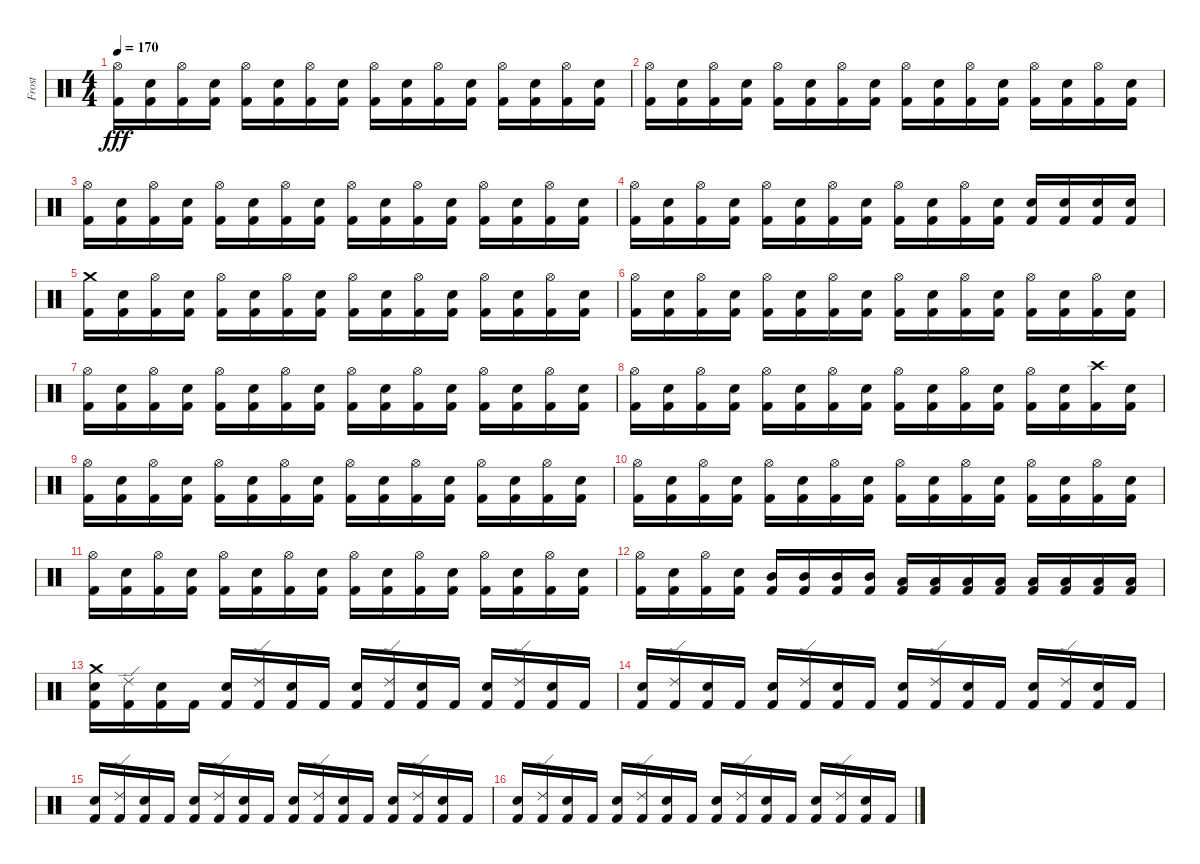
\track ("Frost" "Frost") {instrument percussion}
\staff {score}
\articulation defaults
\ts (4 4)
\tempo 170
\clef neutral
\ks c
("Hi-Hat (open)" "Kick (hit) 2").16{dy fff} ("Electric Snare (hit)" "Kick (hit) 2").16 ("Hi-Hat (open)" "Kick (hit) 2").16 ("Electric Snare (hit)" "Kick (hit) 2").16 ("Hi-Hat (open)" "Kick (hit) 2").16 ("Electric Snare (hit)" "Kick (hit) 2").16 ("Hi-Hat (open)" "Kick (hit) 2").16 ("Electric Snare (hit)" "Kick (hit) 2").16 ("Hi-Hat (open)" "Kick (hit) 2").16 ("Electric Snare (hit)" "Kick (hit) 2").16 ("Hi-Hat (open)" "Kick (hit) 2").16 ("Electric Snare (hit)" "Kick (hit) 2").16 ("Hi-Hat (open)" "Kick (hit) 2").16 ("Electric Snare (hit)" "Kick (hit) 2").16 ("Hi-Hat (open)" "Kick (hit) 2").16 ("Electric Snare (hit)" "Kick (hit) 2").16 |
("Hi-Hat (open)" "Kick (hit) 2").16 ("Electric Snare (hit)" "Kick (hit) 2").16 ("Hi-Hat (open)" "Kick (hit) 2").16 ("Electric Snare (hit)" "Kick (hit) 2").16 ("Hi-Hat (open)" "Kick (hit) 2").16 ("Electric Snare (hit)" "Kick (hit) 2").16 ("Hi-Hat (open)" "Kick (hit) 2").16 ("Electric Snare (hit)" "Kick (hit) 2").16 ("Hi-Hat (open)" "Kick (hit) 2").16 ("Electric Snare (hit)" "Kick (hit) 2").16 ("Hi-Hat (open)" "Kick (hit) 2").16 ("Electric Snare (hit)" "Kick (hit) 2").16 ("Hi-Hat (open)" "Kick (hit) 2").16 ("Electric Snare (hit)" "Kick (hit) 2").16 ("Hi-Hat (open)" "Kick (hit) 2").16 ("Electric Snare (hit)" "Kick (hit) 2").16 |
("Hi-Hat (open)" "Kick (hit) 2").16 ("Electric Snare (hit)" "Kick (hit) 2").16 ("Hi-Hat (open)" "Kick (hit) 2").16 ("Electric Snare (hit)" "Kick (hit) 2").16 ("Hi-Hat (open)" "Kick (hit) 2").16 ("Electric Snare (hit)" "Kick (hit) 2").16 ("Hi-Hat (open)" "Kick (hit) 2").16 ("Electric Snare (hit)" "Kick (hit) 2").16 ("Hi-Hat (open)" "Kick (hit) 2").16 ("Electric Snare (hit)" "Kick (hit) 2").16 ("Hi-Hat (open)" "Kick (hit) 2").16 ("Electric Snare (hit)" "Kick (hit) 2").16 ("Hi-Hat (open)" "Kick (hit) 2").16 ("Electric Snare (hit)" "Kick (hit) 2").16 ("Hi-Hat (open)" "Kick (hit) 2").16 ("Electric Snare (hit)" "Kick (hit) 2").16 |
("Hi-Hat (open)" "Kick (hit) 2").16 ("Electric Snare (hit)" "Kick (hit) 2").16 ("Hi-Hat (open)" "Kick (hit) 2").16 ("Electric Snare (hit)" "Kick (hit) 2").16 ("Hi-Hat (open)" "Kick (hit) 2").16 ("Electric Snare (hit)" "Kick (hit) 2").16 ("Hi-Hat (open)" "Kick (hit) 2").16 ("Electric Snare (hit)" "Kick (hit) 2").16 ("Hi-Hat (open)" "Kick (hit) 2").16 ("Electric Snare (hit)" "Kick (hit) 2").16 ("Hi-Hat (open)" "Kick (hit) 2").16 ("Electric Snare (hit)" "Kick (hit) 2").16 ("Electric Snare (hit)" "Kick (hit) 2").16 ("Electric Snare (hit)" "Kick (hit) 2").16 ("Electric Snare (hit)" "Kick (hit) 2").16 ("Electric Snare (hit)" "Kick (hit) 2").16 |
("Crash medium (hit)" "Kick (hit) 2").16 ("Electric Snare (hit)" "Kick (hit) 2").16 ("Hi-Hat (open)" "Kick (hit) 2").16 ("Electric Snare (hit)" "Kick (hit) 2").16 ("Hi-Hat (open)" "Kick (hit) 2").16 ("Electric Snare (hit)" "Kick (hit) 2").16 ("Hi-Hat (open)" "Kick (hit) 2").16 ("Electric Snare (hit)" "Kick (hit) 2").16 ("Hi-Hat (open)" "Kick (hit) 2").16 ("Electric Snare (hit)" "Kick (hit) 2").16 ("Hi-Hat (open)" "Kick (hit) 2").16 ("Electric Snare (hit)" "Kick (hit) 2").16 ("Hi-Hat (open)" "Kick (hit) 2").16 ("Electric Snare (hit)" "Kick (hit) 2").16 ("Hi-Hat (open)" "Kick (hit) 2").16 ("Electric Snare (hit)" "Kick (hit) 2").16 |
("Hi-Hat (open)" "Kick (hit) 2").16 ("Electric Snare (hit)" "Kick (hit) 2").16 ("Hi-Hat (open)" "Kick (hit) 2").16 ("Electric Snare (hit)" "Kick (hit) 2").16 ("Hi-Hat (open)" "Kick (hit) 2").16 ("Electric Snare (hit)" "Kick (hit) 2").16 ("Hi-Hat (open)" "Kick (hit) 2").16 ("Electric Snare (hit)" "Kick (hit) 2").16 ("Hi-Hat (open)" "Kick (hit) 2").16 ("Electric Snare (hit)" "Kick (hit) 2").16 ("Hi-Hat (open)" "Kick (hit) 2").16 ("Electric Snare (hit)" "Kick (hit) 2").16 ("Hi-Hat (open)" "Kick (hit) 2").16 ("Electric Snare (hit)" "Kick (hit) 2").16 ("Hi-Hat (open)" "Kick (hit) 2").16 ("Electric Snare (hit)" "Kick (hit) 2").16 |
("Hi-Hat (open)" "Kick (hit) 2").16 ("Electric Snare (hit)" "Kick (hit) 2").16 ("Hi-Hat (open)" "Kick (hit) 2").16 ("Electric Snare (hit)" "Kick (hit) 2").16 ("Hi-Hat (open)" "Kick (hit) 2").16 ("Electric Snare (hit)" "Kick (hit) 2").16 ("Hi-Hat (open)" "Kick (hit) 2").16 ("Electric Snare (hit)" "Kick (hit) 2").16 ("Hi-Hat (open)" "Kick (hit) 2").16 ("Electric Snare (hit)" "Kick (hit) 2").16 ("Hi-Hat (open)" "Kick (hit) 2").16 ("Electric Snare (hit)" "Kick (hit) 2").16 ("Hi-Hat (open)" "Kick (hit) 2").16 ("Electric Snare (hit)" "Kick (hit) 2").16 ("Hi-Hat (open)" "Kick (hit) 2").16 ("Electric Snare (hit)" "Kick (hit) 2").16 |
("Hi-Hat (open)" "Kick (hit) 2").16 ("Electric Snare (hit)" "Kick (hit) 2").16 ("Hi-Hat (open)" "Kick (hit) 2").16 ("Electric Snare (hit)" "Kick (hit) 2").16 ("Hi-Hat (open)" "Kick (hit) 2").16 ("Electric Snare (hit)" "Kick (hit) 2").16 ("Hi-Hat (open)" "Kick (hit) 2").16 ("Electric Snare (hit)" "Kick (hit) 2").16 ("Hi-Hat (open)" "Kick (hit) 2").16 ("Electric Snare (hit)" "Kick (hit) 2").16 ("Hi-Hat (open)" "Kick (hit) 2").16 ("Electric Snare (hit)" "Kick (hit) 2").16 ("Hi-Hat (open)" "Kick (hit) 2").16 ("Electric Snare (hit)" "Kick (hit) 2").16 ("Crash high (hit)" "Kick (hit) 2").16 ("Electric Snare (hit)" "Kick (hit) 2").16 |
("Hi-Hat (open)" "Kick (hit) 2").16 ("Electric Snare (hit)" "Kick (hit) 2").16 ("Hi-Hat (open)" "Kick (hit) 2").16 ("Electric Snare (hit)" "Kick (hit) 2").16 ("Hi-Hat (open)" "Kick (hit) 2").16 ("Electric Snare (hit)" "Kick (hit) 2").16 ("Hi-Hat (open)" "Kick (hit) 2").16 ("Electric Snare (hit)" "Kick (hit) 2").16 ("Hi-Hat (open)" "Kick (hit) 2").16 ("Electric Snare (hit)" "Kick (hit) 2").16 ("Hi-Hat (open)" "Kick (hit) 2").16 ("Electric Snare (hit)" "Kick (hit) 2").16 ("Hi-Hat (open)" "Kick (hit) 2").16 ("Electric Snare (hit)" "Kick (hit) 2").16 ("Hi-Hat (open)" "Kick (hit) 2").16 ("Electric Snare (hit)" "Kick (hit) 2").16 |
("Hi-Hat (open)" "Kick (hit) 2").16 ("Electric Snare (hit)" "Kick (hit) 2").16 ("Hi-Hat (open)" "Kick (hit) 2").16 ("Electric Snare (hit)" "Kick (hit) 2").16 ("Hi-Hat (open)" "Kick (hit) 2").16 ("Electric Snare (hit)" "Kick (hit) 2").16 ("Hi-Hat (open)" "Kick (hit) 2").16 ("Electric Snare (hit)" "Kick (hit) 2").16 ("Hi-Hat (open)" "Kick (hit) 2").16 ("Electric Snare (hit)" "Kick (hit) 2").16 ("Hi-Hat (open)" "Kick (hit) 2").16 ("Electric Snare (hit)" "Kick (hit) 2").16 ("Hi-Hat (open)" "Kick (hit) 2").16 ("Electric Snare (hit)" "Kick (hit) 2").16 ("Hi-Hat (open)" "Kick (hit) 2").16 ("Electric Snare (hit)" "Kick (hit) 2").16 |
("Hi-Hat (open)" "Kick (hit) 2").16 ("Electric Snare (hit)" "Kick (hit) 2").16 ("Hi-Hat (open)" "Kick (hit) 2").16 ("Electric Snare (hit)" "Kick (hit) 2").16 ("Hi-Hat (open)" "Kick (hit) 2").16 ("Electric Snare (hit)" "Kick (hit) 2").16 ("Hi-Hat (open)" "Kick (hit) 2").16 ("Electric Snare (hit)" "Kick (hit) 2").16 ("Hi-Hat (open)" "Kick (hit) 2").16 ("Electric Snare (hit)" "Kick (hit) 2").16 ("Hi-Hat (open)" "Kick (hit) 2").16 ("Electric Snare (hit)" "Kick (hit) 2").16 ("Hi-Hat (open)" "Kick (hit) 2").16 ("Electric Snare (hit)" "Kick (hit) 2").16 ("Hi-Hat (open)" "Kick (hit) 2").16 ("Electric Snare (hit)" "Kick (hit) 2").16 |
("Hi-Hat (open)" "Kick (hit) 2").16 ("Electric Snare (hit)" "Kick (hit) 2").16 ("Hi-Hat (open)" "Kick (hit) 2").16 ("Electric Snare (hit)" "Kick (hit) 2").16 ("Mid Tom (hit)" "Kick (hit) 2").16 ("Mid Tom (hit)" "Kick (hit) 2").16 ("Mid Tom (hit)" "Kick (hit) 2").16 ("Mid Tom (hit)" "Kick (hit) 2").16 ("Low Tom (hit)" "Kick (hit) 2").16 ("Low Tom (hit)" "Kick (hit) 2").16 ("Low Tom (hit)" "Kick (hit) 2").16 ("Low Tom (hit)" "Kick (hit) 2").16 ("Low Floor Tom (hit)" "Kick (hit) 2").16 ("Low Floor Tom (hit)" "Kick (hit) 2").16 ("Low Floor Tom (hit)" "Kick (hit) 2").16 ("Low Floor Tom (hit)" "Kick (hit) 2").16 |
("Crash medium (hit)" "Electric Snare (hit)" "Kick (hit) 2").16 ("Ride (edge) 2" "Kick (hit) 2").16 ("Electric Snare (hit)" "Kick (hit) 2").16 "Kick (hit) 2".16 ("Electric Snare (hit)" "Kick (hit) 2").16 ("Ride (edge) 2" "Kick (hit) 2").16 ("Electric Snare (hit)" "Kick (hit) 2").16 "Kick (hit) 2".16 ("Electric Snare (hit)" "Kick (hit) 2").16 ("Ride (edge) 2" "Kick (hit) 2").16 ("Electric Snare (hit)" "Kick (hit) 2").16 "Kick (hit) 2".16 ("Electric Snare (hit)" "Kick (hit) 2").16 ("Ride (edge) 2" "Kick (hit) 2").16 ("Electric Snare (hit)" "Kick (hit) 2").16 "Kick (hit) 2".16 |
("Electric Snare (hit)" "Kick (hit) 2").16 ("Ride (edge) 2" "Kick (hit) 2").16 ("Electric Snare (hit)" "Kick (hit) 2").16 "Kick (hit) 2".16 ("Electric Snare (hit)" "Kick (hit) 2").16 ("Ride (edge) 2" "Kick (hit) 2").16 ("Electric Snare (hit)" "Kick (hit) 2").16 "Kick (hit) 2".16 ("Electric Snare (hit)" "Kick (hit) 2").16 ("Ride (edge) 2" "Kick (hit) 2").16 ("Electric Snare (hit)" "Kick (hit) 2").16 "Kick (hit) 2".16 ("Electric Snare (hit)" "Kick (hit) 2").16 ("Ride (edge) 2" "Kick (hit) 2").16 ("Electric Snare (hit)" "Kick (hit) 2").16 "Kick (hit) 2".16 |
("Electric Snare (hit)" "Kick (hit) 2").16 ("Ride (edge) 2" "Kick (hit) 2").16 ("Electric Snare (hit)" "Kick (hit) 2").16 "Kick (hit) 2".16 ("Electric Snare (hit)" "Kick (hit) 2").16 ("Ride (edge) 2" "Kick (hit) 2").16 ("Electric Snare (hit)" "Kick (hit) 2").16 "Kick (hit) 2".16 ("Electric Snare (hit)" "Kick (hit) 2").16 ("Ride (edge) 2" "Kick (hit) 2").16 ("Electric Snare (hit)" "Kick (hit) 2").16 "Kick (hit) 2".16 ("Electric Snare (hit)" "Kick (hit) 2").16 ("Ride (edge) 2" "Kick (hit) 2").16 ("Electric Snare (hit)" "Kick (hit) 2").16 "Kick (hit) 2".16 |
("Electric Snare (hit)" "Kick (hit) 2").16 ("Ride (edge) 2" "Kick (hit) 2").16 ("Electric Snare (hit)" "Kick (hit) 2").16 "Kick (hit) 2".16 ("Electric Snare (hit)" "Kick (hit) 2").16 ("Ride (edge) 2" "Kick (hit) 2").16 ("Electric Snare (hit)" "Kick (hit) 2").16 "Kick (hit) 2".16 ("Electric Snare (hit)" "Kick (hit) 2").16 ("Ride (edge) 2" "Kick (hit) 2").16 ("Electric Snare (hit)" "Kick (hit) 2").16 "Kick (hit) 2".16 ("Electric Snare (hit)" "Kick (hit) 2").16 ("Ride (edge) 2" "Kick (hit) 2").16 ("Electric Snare (hit)" "Kick (hit) 2").16 "Kick (hit) 2".16
